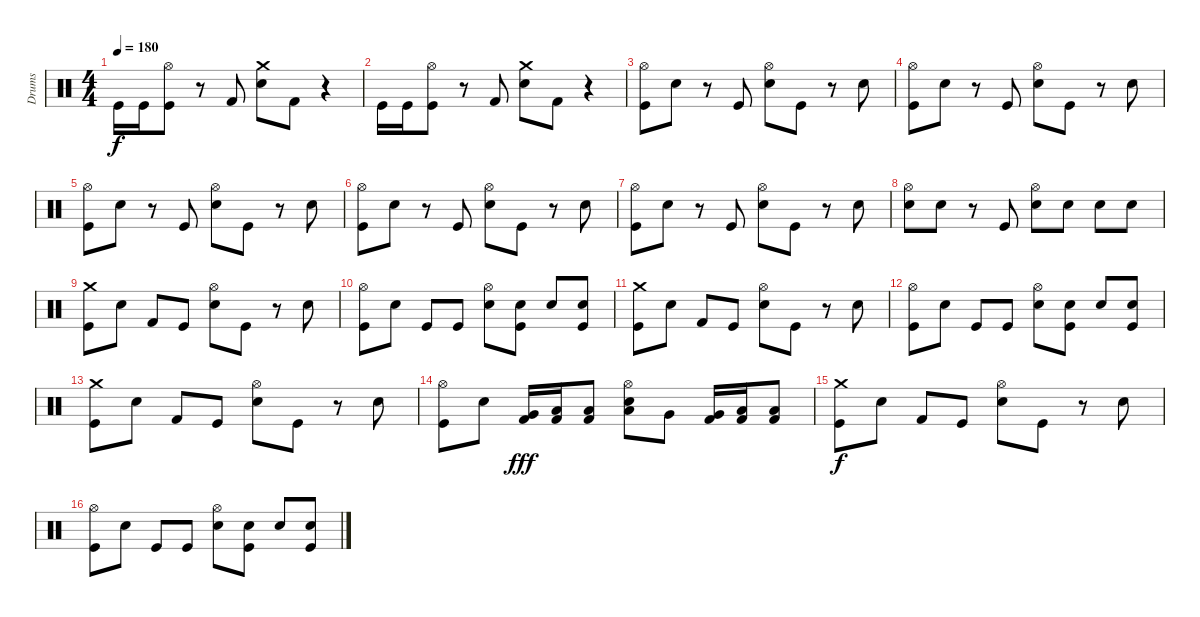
\track ("Drums" "Drums") {instrument percussion}
\staff {score}
\articulation defaults
\ts (4 4)
\tempo 180
\clef neutral
\ks c "Kick (hit)".16{dy f} "Kick (hit)".16
("Hi-Hat (open)" "Kick (hit)").8 r.8 "Kick (hit) 2".8 ("Crash medium (hit)" "Electric Snare (hit)").8 "Kick (hit) 2".8 r.4 |
"Kick (hit)".16 "Kick (hit)".16 ("Hi-Hat (open)" "Kick (hit)").8 r.8 "Kick (hit) 2".8 ("Crash medium (hit)" "Electric Snare (hit)").8 "Kick (hit) 2".8 r.4 |
("Hi-Hat (open)" "Kick (hit)").8 "Electric Snare (hit)".8 r.8 "Kick (hit)".8 ("Hi-Hat (open)" "Electric Snare (hit)").8 "Kick (hit)".8 r.8 "Electric Snare (hit)".8 |
("Hi-Hat (open)" "Kick (hit)").8 "Electric Snare (hit)".8 r.8 "Kick (hit)".8 ("Hi-Hat (open)" "Electric Snare (hit)").8 "Kick (hit)".8 r.8 "Electric Snare (hit)".8 |
("Hi-Hat (open)" "Kick (hit)").8 "Electric Snare (hit)".8 r.8 "Kick (hit)".8 ("Hi-Hat (open)" "Electric Snare (hit)").8 "Kick (hit)".8 r.8 "Electric Snare (hit)".8 |
("Hi-Hat (open)" "Kick (hit)").8 "Electric Snare (hit)".8 r.8 "Kick (hit)".8 ("Hi-Hat (open)" "Electric Snare (hit)").8 "Kick (hit)".8 r.8 "Electric Snare (hit)".8 |
("Hi-Hat (open)" "Kick (hit)").8 "Electric Snare (hit)".8 r.8 "Kick (hit)".8 ("Hi-Hat (open)" "Electric Snare (hit)").8 "Kick (hit)".8 r.8 "Electric Snare (hit)".8 |
("Hi-Hat (open)" "Electric Snare (hit)").8 "Electric Snare (hit)".8 r.8 "Kick (hit)".8 ("Hi-Hat (open)" "Electric Snare (hit)").8 "Snare (hit) 2".8 "Snare (hit) 2".8 "Snare (hit) 2".8 |
("Crash medium (hit)" "Kick (hit)").8 "Snare (hit) 2".8 "Kick (hit) 2".8 "Kick (hit)".8 ("Hi-Hat (open)" "Snare (hit) 2").8 "Kick (hit)".8 r.8 "Snare (hit) 2".8 |
("Hi-Hat (open)" "Kick (hit)").8 "Snare (hit) 2".8 "Kick (hit)".8 "Kick (hit)".8 ("Hi-Hat (open)" "Snare (hit) 2").8 ("Electric Snare (hit)" "Kick (hit)").8 "Electric Snare (hit)".8 ("Electric Snare (hit)" "Kick (hit)").8 |
("Crash medium (hit)" "Kick (hit)").8 "Snare (hit) 2".8 "Kick (hit) 2".8 "Kick (hit)".8 ("Hi-Hat (open)" "Snare (hit) 2").8 "Kick (hit)".8 r.8 "Snare (hit) 2".8 |
("Hi-Hat (open)" "Kick (hit)").8 "Snare (hit) 2".8 "Kick (hit)".8 "Kick (hit)".8 ("Hi-Hat (open)" "Snare (hit) 2").8 ("Electric Snare (hit)" "Kick (hit)").8 "Electric Snare (hit)".8 ("Electric Snare (hit)" "Kick (hit)").8 |
("Crash medium (hit)" "Kick (hit)").8 "Snare (hit) 2".8 "Kick (hit) 2".8 "Kick (hit)".8 ("Hi-Hat (open)" "Snare (hit) 2").8 "Kick (hit)".8 r.8 "Snare (hit) 2".8 |
("Hi-Hat (open)" "Kick (hit)").8 "Snare (hit) 2".8 ("Very Low Tom (hit)" "Kick (hit) 2").16{dy fff} ("Low Floor Tom (hit)" "Kick (hit) 2").16 ("Low Floor Tom (hit)" "Kick (hit) 2").8 ("Hi-Hat (open)" "Low Tom (hit)" "Snare (hit) 2").8 "Very Low Tom (hit)".8 ("Very Low Tom (hit)" "Kick (hit) 2").16 ("Low Floor Tom (hit)" "Kick (hit) 2").16 ("Low Floor Tom (hit)" "Kick (hit) 2").8 |
("Crash medium (hit)" "Kick (hit)").8{dy f} "Snare (hit) 2".8 "Kick (hit) 2".8 "Kick (hit)".8 ("Hi-Hat (open)" "Snare (hit) 2").8 "Kick (hit)".8 r.8 "Snare (hit) 2".8 |
("Hi-Hat (open)" "Kick (hit)").8 "Snare (hit) 2".8 "Kick (hit)".8 "Kick (hit)".8 ("Hi-Hat (open)" "Snare (hit) 2").8 ("Electric Snare (hit)" "Kick (hit)").8 "Electric Snare (hit)".8 ("Electric Snare (hit)" "Kick (hit)").8
